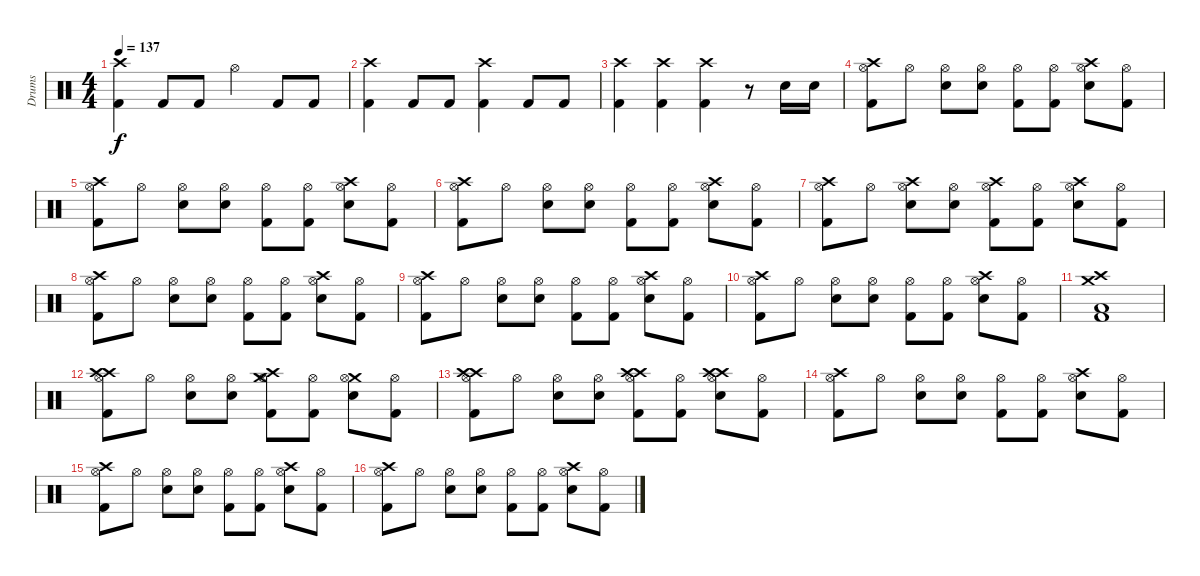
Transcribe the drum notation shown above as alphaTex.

\track ("Drums" "Drums") {instrument percussion}
\staff {score}
\articulation defaults
\ts (4 4)
\tempo 137
\clef neutral
\ks c
("Crash high (hit)" "Kick (hit) 2").4{dy f} "Kick (hit) 2".8 "Kick (hit) 2".8 "Hi-Hat (open)".4 "Kick (hit) 2".8 "Kick (hit) 2".8 |
("Crash high (hit)" "Kick (hit) 2").4 "Kick (hit) 2".8 "Kick (hit) 2".8 ("Crash high (hit)" "Kick (hit) 2").4 "Kick (hit) 2".8 "Kick (hit) 2".8 |
("Crash high (hit)" "Kick (hit) 2").4 ("Crash high (hit)" "Kick (hit) 2").4 ("Crash high (hit)" "Kick (hit) 2").4 r.8 "Snare (hit) 2".16 "Snare (hit) 2".16 |
("Crash high (hit)" "Hi-Hat (open)" "Kick (hit) 2").8 "Hi-Hat (open)".8 ("Hi-Hat (open)" "Snare (hit) 2").8 ("Hi-Hat (open)" "Snare (hit) 2").8 ("Hi-Hat (open)" "Kick (hit) 2").8 ("Hi-Hat (open)" "Kick (hit) 2").8 ("Crash high (hit)" "Hi-Hat (open)" "Snare (hit) 2").8 ("Hi-Hat (open)" "Kick (hit) 2").8 |
("Crash high (hit)" "Hi-Hat (open)" "Kick (hit) 2").8 "Hi-Hat (open)".8 ("Hi-Hat (open)" "Snare (hit) 2").8 ("Hi-Hat (open)" "Snare (hit) 2").8 ("Hi-Hat (open)" "Kick (hit) 2").8 ("Hi-Hat (open)" "Kick (hit) 2").8 ("Crash high (hit)" "Hi-Hat (open)" "Snare (hit) 2").8 ("Hi-Hat (open)" "Kick (hit) 2").8 |
("Crash high (hit)" "Hi-Hat (open)" "Kick (hit) 2").8 "Hi-Hat (open)".8 ("Hi-Hat (open)" "Snare (hit) 2").8 ("Hi-Hat (open)" "Snare (hit) 2").8 ("Hi-Hat (open)" "Kick (hit) 2").8 ("Hi-Hat (open)" "Kick (hit) 2").8 ("Crash high (hit)" "Hi-Hat (open)" "Snare (hit) 2").8 ("Hi-Hat (open)" "Kick (hit) 2").8 |
("Crash high (hit)" "Hi-Hat (open)" "Kick (hit) 2").8 "Hi-Hat (open)".8 ("Crash high (hit)" "Hi-Hat (open)" "Snare (hit) 2").8 ("Hi-Hat (open)" "Snare (hit) 2").8 ("Crash high (hit)" "Hi-Hat (open)" "Kick (hit) 2").8 ("Hi-Hat (open)" "Kick (hit) 2").8 ("Crash high (hit)" "Hi-Hat (open)" "Snare (hit) 2").8 ("Hi-Hat (open)" "Kick (hit) 2").8 |
("Crash high (hit)" "Hi-Hat (open)" "Kick (hit) 2").8 "Hi-Hat (open)".8 ("Hi-Hat (open)" "Snare (hit) 2").8 ("Hi-Hat (open)" "Snare (hit) 2").8 ("Hi-Hat (open)" "Kick (hit) 2").8 ("Hi-Hat (open)" "Kick (hit) 2").8 ("Crash high (hit)" "Hi-Hat (open)" "Snare (hit) 2").8 ("Hi-Hat (open)" "Kick (hit) 2").8 |
("Crash high (hit)" "Hi-Hat (open)" "Kick (hit) 2").8 "Hi-Hat (open)".8 ("Hi-Hat (open)" "Snare (hit) 2").8 ("Hi-Hat (open)" "Snare (hit) 2").8 ("Hi-Hat (open)" "Kick (hit) 2").8 ("Hi-Hat (open)" "Kick (hit) 2").8 ("Crash high (hit)" "Hi-Hat (open)" "Snare (hit) 2").8 ("Hi-Hat (open)" "Kick (hit) 2").8 |
("Crash high (hit)" "Hi-Hat (open)" "Kick (hit) 2").8 "Hi-Hat (open)".8 ("Hi-Hat (open)" "Snare (hit) 2").8 ("Hi-Hat (open)" "Snare (hit) 2").8 ("Hi-Hat (open)" "Kick (hit) 2").8 ("Hi-Hat (open)" "Kick (hit) 2").8 ("Crash high (hit)" "Hi-Hat (open)" "Snare (hit) 2").8 ("Hi-Hat (open)" "Kick (hit) 2").8 |
("Crash high (hit)" "Crash medium (hit)" "Low Tom (hit)" "Kick (hit) 2").1 |
("Crash high (hit)" "Crash high (hit)" "Hi-Hat (open)" "Kick (hit) 2").8 "Hi-Hat (open)".8 ("Hi-Hat (open)" "Snare (hit) 2").8 ("Hi-Hat (open)" "Snare (hit) 2").8 ("Crash medium (hit)" "Crash high (hit)" "Hi-Hat (open)" "Kick (hit) 2").8 ("Hi-Hat (open)" "Kick (hit) 2").8 ("Crash medium (hit)" "Hi-Hat (open)" "Snare (hit) 2").8 ("Hi-Hat (open)" "Kick (hit) 2").8 |
("Crash high (hit)" "Crash high (hit)" "Hi-Hat (open)" "Kick (hit) 2").8 "Hi-Hat (open)".8 ("Hi-Hat (open)" "Snare (hit) 2").8 ("Hi-Hat (open)" "Snare (hit) 2").8 ("Crash high (hit)" "Crash high (hit)" "Hi-Hat (open)" "Kick (hit) 2").8 ("Hi-Hat (open)" "Kick (hit) 2").8 ("Crash high (hit)" "Crash high (hit)" "Hi-Hat (open)" "Snare (hit) 2").8 ("Hi-Hat (open)" "Kick (hit) 2").8 |
("Crash high (hit)" "Hi-Hat (open)" "Kick (hit) 2").8 "Hi-Hat (open)".8 ("Hi-Hat (open)" "Snare (hit) 2").8 ("Hi-Hat (open)" "Snare (hit) 2").8 ("Hi-Hat (open)" "Kick (hit) 2").8 ("Hi-Hat (open)" "Kick (hit) 2").8 ("Crash high (hit)" "Hi-Hat (open)" "Snare (hit) 2").8 ("Hi-Hat (open)" "Kick (hit) 2").8 |
("Crash high (hit)" "Hi-Hat (open)" "Kick (hit) 2").8 "Hi-Hat (open)".8 ("Hi-Hat (open)" "Snare (hit) 2").8 ("Hi-Hat (open)" "Snare (hit) 2").8 ("Hi-Hat (open)" "Kick (hit) 2").8 ("Hi-Hat (open)" "Kick (hit) 2").8 ("Crash high (hit)" "Hi-Hat (open)" "Snare (hit) 2").8 ("Hi-Hat (open)" "Kick (hit) 2").8 |
("Crash high (hit)" "Hi-Hat (open)" "Kick (hit) 2").8 "Hi-Hat (open)".8 ("Hi-Hat (open)" "Snare (hit) 2").8 ("Hi-Hat (open)" "Snare (hit) 2").8 ("Hi-Hat (open)" "Kick (hit) 2").8 ("Hi-Hat (open)" "Kick (hit) 2").8 ("Crash high (hit)" "Hi-Hat (open)" "Snare (hit) 2").8 ("Hi-Hat (open)" "Kick (hit) 2").8
